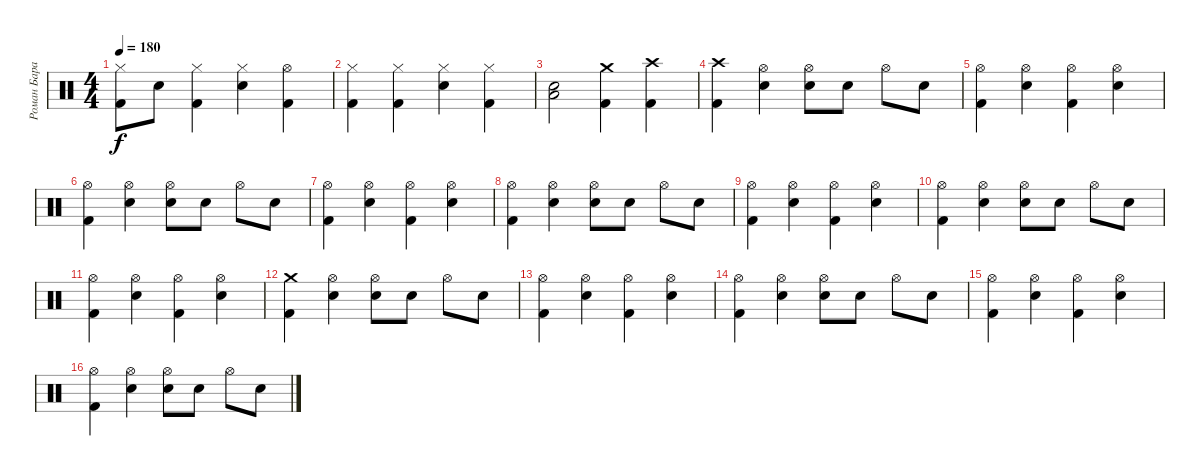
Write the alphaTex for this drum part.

\track ("Роман Баранюк" "Роман Бара") {instrument percussion}
\staff {score}
\articulation defaults
\ts (4 4)
\tempo 180
\clef neutral
\ks c
("Hi-Hat (closed)" "Kick (hit) 2").8{dy f} "Snare (hit) 2".8 ("Hi-Hat (closed)" "Kick (hit) 2").4 ("Hi-Hat (closed)" "Snare (hit) 2").4 ("Hi-Hat (open)" "Kick (hit) 2").4 |
("Hi-Hat (closed)" "Kick (hit) 2").4 ("Hi-Hat (closed)" "Kick (hit) 2").4 ("Hi-Hat (closed)" "Snare (hit) 2").4 ("Hi-Hat (closed)" "Kick (hit) 2").4 |
("Snare (hit) 2" "Low Tom (hit)").2 ("Crash medium (hit)" "Kick (hit) 2").4 ("Crash high (hit)" "Kick (hit) 2").4 |
("Crash high (hit)" "Kick (hit) 2").4 ("Hi-Hat (open)" "Snare (hit) 2").4 ("Hi-Hat (open)" "Snare (hit) 2").8 "Snare (hit) 2".8 "Hi-Hat (open)".8 "Snare (hit) 2".8 |
("Hi-Hat (open)" "Kick (hit) 2").4 ("Hi-Hat (open)" "Snare (hit) 2").4 ("Hi-Hat (open)" "Kick (hit) 2").4 ("Hi-Hat (open)" "Snare (hit) 2").4 |
("Hi-Hat (open)" "Kick (hit) 2").4 ("Hi-Hat (open)" "Snare (hit) 2").4 ("Hi-Hat (open)" "Snare (hit) 2").8 "Snare (hit) 2".8 "Hi-Hat (open)".8 "Snare (hit) 2".8 |
("Hi-Hat (open)" "Kick (hit) 2").4 ("Hi-Hat (open)" "Snare (hit) 2").4 ("Hi-Hat (open)" "Kick (hit) 2").4 ("Hi-Hat (open)" "Snare (hit) 2").4 |
("Hi-Hat (open)" "Kick (hit) 2").4 ("Hi-Hat (open)" "Snare (hit) 2").4 ("Hi-Hat (open)" "Snare (hit) 2").8 "Snare (hit) 2".8 "Hi-Hat (open)".8 "Snare (hit) 2".8 |
("Hi-Hat (open)" "Kick (hit) 2").4 ("Hi-Hat (open)" "Snare (hit) 2").4 ("Hi-Hat (open)" "Kick (hit) 2").4 ("Hi-Hat (open)" "Snare (hit) 2").4 |
("Hi-Hat (open)" "Kick (hit) 2").4 ("Hi-Hat (open)" "Snare (hit) 2").4 ("Hi-Hat (open)" "Snare (hit) 2").8 "Snare (hit) 2".8 "Hi-Hat (open)".8 "Snare (hit) 2".8 |
("Hi-Hat (open)" "Kick (hit) 2").4 ("Hi-Hat (open)" "Snare (hit) 2").4 ("Hi-Hat (open)" "Kick (hit) 2").4 ("Hi-Hat (open)" "Snare (hit) 2").4 |
("Crash medium (hit)" "Kick (hit) 2").4 ("Hi-Hat (open)" "Snare (hit) 2").4 ("Hi-Hat (open)" "Snare (hit) 2").8 "Snare (hit) 2".8 "Hi-Hat (open)".8 "Snare (hit) 2".8 |
("Hi-Hat (open)" "Kick (hit) 2").4 ("Hi-Hat (open)" "Snare (hit) 2").4 ("Hi-Hat (open)" "Kick (hit) 2").4 ("Hi-Hat (open)" "Snare (hit) 2").4 |
("Hi-Hat (open)" "Kick (hit) 2").4 ("Hi-Hat (open)" "Snare (hit) 2").4 ("Hi-Hat (open)" "Snare (hit) 2").8 "Snare (hit) 2".8 "Hi-Hat (open)".8 "Snare (hit) 2".8 |
("Hi-Hat (open)" "Kick (hit) 2").4 ("Hi-Hat (open)" "Snare (hit) 2").4 ("Hi-Hat (open)" "Kick (hit) 2").4 ("Hi-Hat (open)" "Snare (hit) 2").4 |
("Hi-Hat (open)" "Kick (hit) 2").4 ("Hi-Hat (open)" "Snare (hit) 2").4 ("Hi-Hat (open)" "Snare (hit) 2").8 "Snare (hit) 2".8 "Hi-Hat (open)".8 "Snare (hit) 2".8
